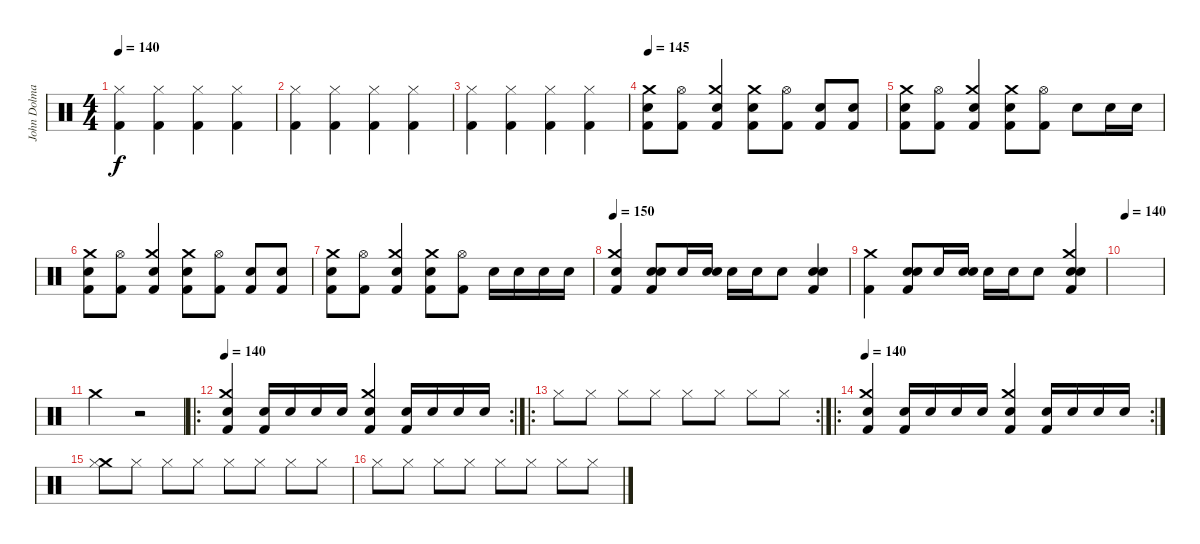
\track ("John Dolmayan" "John Dolma") {instrument percussion}
\staff {score}
\articulation defaults
\ts (4 4)
\tempo 140
\clef neutral
\ks c
("Hi-Hat (closed)" "Kick (hit) 2").4{dy f} ("Hi-Hat (closed)" "Kick (hit) 2").4 ("Hi-Hat (closed)" "Kick (hit) 2").4 ("Hi-Hat (closed)" "Kick (hit) 2").4 |
("Hi-Hat (closed)" "Kick (hit) 2").4 ("Hi-Hat (closed)" "Kick (hit) 2").4 ("Hi-Hat (closed)" "Kick (hit) 2").4 ("Hi-Hat (closed)" "Kick (hit) 2").4 |
("Hi-Hat (closed)" "Kick (hit) 2").4 ("Hi-Hat (closed)" "Kick (hit) 2").4 ("Hi-Hat (closed)" "Kick (hit) 2").4 ("Hi-Hat (closed)" "Kick (hit) 2").4 |
\tempo 145
("Crash medium (hit)" "Electric Snare (hit)" "Kick (hit) 2").8 ("Hi-Hat (open)" "Kick (hit) 2").8 ("Crash medium (hit)" "Electric Snare (hit)" "Kick (hit) 2").4 ("Crash medium (hit)" "Electric Snare (hit)" "Kick (hit) 2").8 ("Hi-Hat (open)" "Kick (hit) 2").8 ("Snare (hit) 2" "Kick (hit) 2").8 ("Electric Snare (hit)" "Kick (hit) 2").8 |
("Crash medium (hit)" "Electric Snare (hit)" "Kick (hit) 2").8 ("Hi-Hat (open)" "Kick (hit) 2").8 ("Crash medium (hit)" "Electric Snare (hit)" "Kick (hit) 2").4 ("Crash medium (hit)" "Electric Snare (hit)" "Kick (hit) 2").8 ("Hi-Hat (open)" "Kick (hit) 2").8 "Electric Snare (hit)".8 "Electric Snare (hit)".16 "Electric Snare (hit)".16 |
("Crash medium (hit)" "Electric Snare (hit)" "Kick (hit) 2").8 ("Hi-Hat (open)" "Kick (hit) 2").8 ("Crash medium (hit)" "Electric Snare (hit)" "Kick (hit) 2").4 ("Crash medium (hit)" "Electric Snare (hit)" "Kick (hit) 2").8 ("Hi-Hat (open)" "Kick (hit) 2").8 ("Snare (hit) 2" "Kick (hit) 2").8 ("Electric Snare (hit)" "Kick (hit) 2").8 |
("Crash medium (hit)" "Electric Snare (hit)" "Kick (hit) 2").8 ("Hi-Hat (open)" "Kick (hit) 2").8 ("Crash medium (hit)" "Electric Snare (hit)" "Kick (hit) 2").4 ("Crash medium (hit)" "Electric Snare (hit)" "Kick (hit) 2").8 ("Hi-Hat (open)" "Kick (hit) 2").8 "Electric Snare (hit)".16 "Electric Snare (hit)".16 "Electric Snare (hit)".16 "Electric Snare (hit)".16 |
\tempo 150
("Crash medium (hit)" "Electric Snare (hit)" "Kick (hit) 2").4 ("Snare (hit) 2" "Electric Snare (hit)" "Kick (hit) 2").8 "Electric Snare (hit)".16 ("Snare (hit) 2" "Electric Snare (hit)").16 "Electric Snare (hit)".16 "Electric Snare (hit)".16 "Electric Snare (hit)".8 ("Snare (hit) 2" "Electric Snare (hit)" "Kick (hit) 2").4 |
("Crash medium (hit)" "Kick (hit) 2").4 ("Snare (hit) 2" "Electric Snare (hit)" "Kick (hit) 2").8 "Electric Snare (hit)".16 ("Snare (hit) 2" "Electric Snare (hit)").16 "Electric Snare (hit)".16 "Electric Snare (hit)".16 "Electric Snare (hit)".8 ("Crash medium (hit)" "Snare (hit) 2" "Electric Snare (hit)" "Kick (hit) 2").4 |
\tempo 140
|
"Crash medium (hit)".2 r.2 |
\ro
\rc 2
\tempo 140
("Crash medium (hit)" "Electric Snare (hit)" "Kick (hit) 2").4 ("Electric Snare (hit)" "Kick (hit) 2").16 "Electric Snare (hit)".16 "Electric Snare (hit)".16 "Electric Snare (hit)".16 ("Crash medium (hit)" "Electric Snare (hit)" "Kick (hit) 2").4 ("Electric Snare (hit)" "Kick (hit) 2").16 "Electric Snare (hit)".16 "Electric Snare (hit)".16 "Electric Snare (hit)".16 |
\ro
\rc 2 "Hi-Hat (closed)".8 "Hi-Hat (closed)".8 "Hi-Hat (closed)".8 "Hi-Hat (closed)".8 "Hi-Hat (closed)".8 "Hi-Hat (closed)".8 "Hi-Hat (closed)".8 "Hi-Hat (closed)".8
|
\ro
\rc 2
\tempo 140
("Crash medium (hit)" "Electric Snare (hit)" "Kick (hit) 2").4 ("Electric Snare (hit)" "Kick (hit) 2").16 "Electric Snare (hit)".16 "Electric Snare (hit)".16 "Electric Snare (hit)".16 ("Crash medium (hit)" "Electric Snare (hit)" "Kick (hit) 2").4 ("Electric Snare (hit)" "Kick (hit) 2").16 "Electric Snare (hit)".16 "Electric Snare (hit)".16 "Electric Snare (hit)".16 |
("Crash medium (hit)" "Hi-Hat (closed)").8 "Hi-Hat (closed)".8 "Hi-Hat (closed)".8 "Hi-Hat (closed)".8 "Hi-Hat (closed)".8 "Hi-Hat (closed)".8 "Hi-Hat (closed)".8 "Hi-Hat (closed)".8 |
"Hi-Hat (closed)".8 "Hi-Hat (closed)".8 "Hi-Hat (closed)".8 "Hi-Hat (closed)".8 "Hi-Hat (closed)".8 "Hi-Hat (closed)".8 "Hi-Hat (closed)".8 "Hi-Hat (closed)".8
